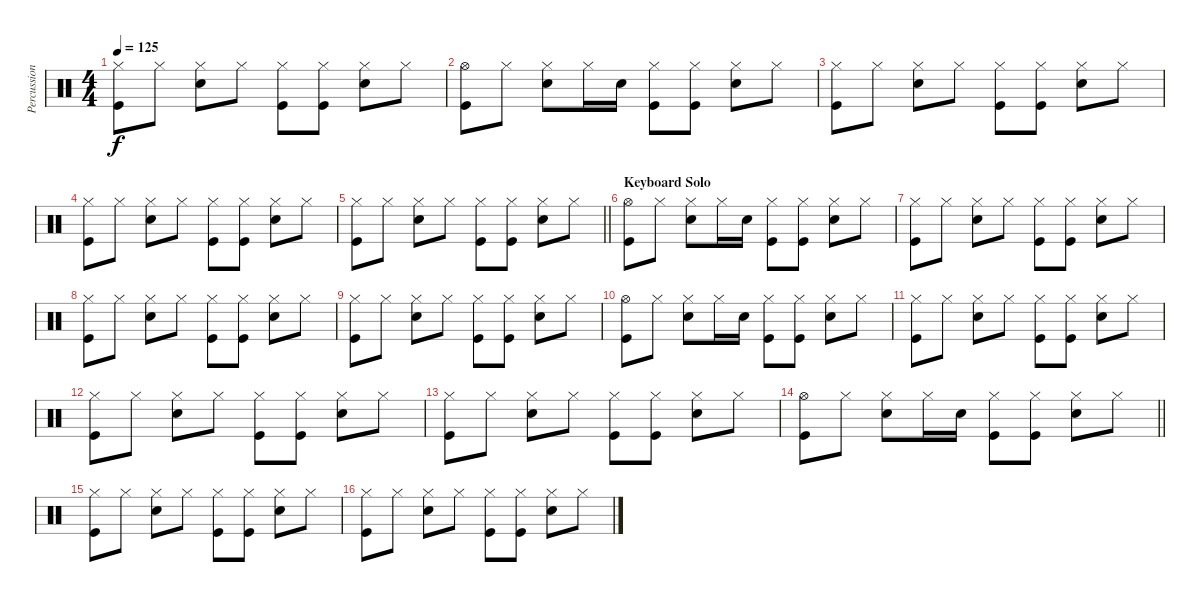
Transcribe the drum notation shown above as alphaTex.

\track ("Percussion" "Percussion") {instrument percussion}
\staff {score}
\articulation defaults
\ts (4 4)
\tempo 125
\clef neutral
\ks c
("Hi-Hat (closed)" "Kick (hit)").8{dy f} "Hi-Hat (closed)".8 ("Electric Snare (hit)" "Hi-Hat (closed)").8 "Hi-Hat (closed)".8 ("Hi-Hat (closed)" "Kick (hit)").8 ("Hi-Hat (closed)" "Kick (hit)").8 ("Electric Snare (hit)" "Hi-Hat (closed)").8 "Hi-Hat (closed)".8 |
("Hi-Hat (open)" "Kick (hit)").8 "Hi-Hat (closed)".8 ("Electric Snare (hit)" "Hi-Hat (closed)").8 "Hi-Hat (closed)".16 "Electric Snare (hit)".16 ("Hi-Hat (closed)" "Kick (hit)").8 ("Hi-Hat (closed)" "Kick (hit)").8 ("Electric Snare (hit)" "Hi-Hat (closed)").8 "Hi-Hat (closed)".8 |
("Hi-Hat (closed)" "Kick (hit)").8 "Hi-Hat (closed)".8 ("Electric Snare (hit)" "Hi-Hat (closed)").8 "Hi-Hat (closed)".8 ("Hi-Hat (closed)" "Kick (hit)").8 ("Hi-Hat (closed)" "Kick (hit)").8 ("Electric Snare (hit)" "Hi-Hat (closed)").8 "Hi-Hat (closed)".8 |
("Hi-Hat (closed)" "Kick (hit)").8 "Hi-Hat (closed)".8 ("Electric Snare (hit)" "Hi-Hat (closed)").8 "Hi-Hat (closed)".8 ("Hi-Hat (closed)" "Kick (hit)").8 ("Hi-Hat (closed)" "Kick (hit)").8 ("Electric Snare (hit)" "Hi-Hat (closed)").8 "Hi-Hat (closed)".8 |
\barLineRight lightlight
("Hi-Hat (closed)" "Kick (hit)").8 "Hi-Hat (closed)".8 ("Electric Snare (hit)" "Hi-Hat (closed)").8 "Hi-Hat (closed)".8 ("Hi-Hat (closed)" "Kick (hit)").8 ("Hi-Hat (closed)" "Kick (hit)").8 ("Electric Snare (hit)" "Hi-Hat (closed)").8 "Hi-Hat (closed)".8 |
\section ("" "Keyboard Solo")
("Hi-Hat (open)" "Kick (hit)").8 "Hi-Hat (closed)".8 ("Electric Snare (hit)" "Hi-Hat (closed)").8 "Hi-Hat (closed)".16 "Electric Snare (hit)".16 ("Hi-Hat (closed)" "Kick (hit)").8 ("Hi-Hat (closed)" "Kick (hit)").8 ("Electric Snare (hit)" "Hi-Hat (closed)").8 "Hi-Hat (closed)".8 |
("Hi-Hat (closed)" "Kick (hit)").8 "Hi-Hat (closed)".8 ("Electric Snare (hit)" "Hi-Hat (closed)").8 "Hi-Hat (closed)".8 ("Hi-Hat (closed)" "Kick (hit)").8 ("Hi-Hat (closed)" "Kick (hit)").8 ("Electric Snare (hit)" "Hi-Hat (closed)").8 "Hi-Hat (closed)".8 |
("Hi-Hat (closed)" "Kick (hit)").8 "Hi-Hat (closed)".8 ("Electric Snare (hit)" "Hi-Hat (closed)").8 "Hi-Hat (closed)".8 ("Hi-Hat (closed)" "Kick (hit)").8 ("Hi-Hat (closed)" "Kick (hit)").8 ("Electric Snare (hit)" "Hi-Hat (closed)").8 "Hi-Hat (closed)".8 |
("Hi-Hat (closed)" "Kick (hit)").8 "Hi-Hat (closed)".8 ("Electric Snare (hit)" "Hi-Hat (closed)").8 "Hi-Hat (closed)".8 ("Hi-Hat (closed)" "Kick (hit)").8 ("Hi-Hat (closed)" "Kick (hit)").8 ("Electric Snare (hit)" "Hi-Hat (closed)").8 "Hi-Hat (closed)".8 |
("Hi-Hat (open)" "Kick (hit)").8 "Hi-Hat (closed)".8 ("Electric Snare (hit)" "Hi-Hat (closed)").8 "Hi-Hat (closed)".16 "Electric Snare (hit)".16 ("Hi-Hat (closed)" "Kick (hit)").8 ("Hi-Hat (closed)" "Kick (hit)").8 ("Electric Snare (hit)" "Hi-Hat (closed)").8 "Hi-Hat (closed)".8 |
("Hi-Hat (closed)" "Kick (hit)").8 "Hi-Hat (closed)".8 ("Electric Snare (hit)" "Hi-Hat (closed)").8 "Hi-Hat (closed)".8 ("Hi-Hat (closed)" "Kick (hit)").8 ("Hi-Hat (closed)" "Kick (hit)").8 ("Electric Snare (hit)" "Hi-Hat (closed)").8 "Hi-Hat (closed)".8 |
("Hi-Hat (closed)" "Kick (hit)").8 "Hi-Hat (closed)".8 ("Electric Snare (hit)" "Hi-Hat (closed)").8 "Hi-Hat (closed)".8 ("Hi-Hat (closed)" "Kick (hit)").8 ("Hi-Hat (closed)" "Kick (hit)").8 ("Electric Snare (hit)" "Hi-Hat (closed)").8 "Hi-Hat (closed)".8 |
("Hi-Hat (closed)" "Kick (hit)").8 "Hi-Hat (closed)".8 ("Electric Snare (hit)" "Hi-Hat (closed)").8 "Hi-Hat (closed)".8 ("Hi-Hat (closed)" "Kick (hit)").8 ("Hi-Hat (closed)" "Kick (hit)").8 ("Electric Snare (hit)" "Hi-Hat (closed)").8 "Hi-Hat (closed)".8 |
\barLineRight lightlight
("Hi-Hat (open)" "Kick (hit)").8 "Hi-Hat (closed)".8 ("Electric Snare (hit)" "Hi-Hat (closed)").8 "Hi-Hat (closed)".16 "Electric Snare (hit)".16 ("Hi-Hat (closed)" "Kick (hit)").8 ("Hi-Hat (closed)" "Kick (hit)").8 ("Electric Snare (hit)" "Hi-Hat (closed)").8 "Hi-Hat (closed)".8 |
("Hi-Hat (closed)" "Kick (hit)").8 "Hi-Hat (closed)".8 ("Electric Snare (hit)" "Hi-Hat (closed)").8 "Hi-Hat (closed)".8 ("Hi-Hat (closed)" "Kick (hit)").8 ("Hi-Hat (closed)" "Kick (hit)").8 ("Electric Snare (hit)" "Hi-Hat (closed)").8 "Hi-Hat (closed)".8 |
("Hi-Hat (closed)" "Kick (hit)").8 "Hi-Hat (closed)".8 ("Electric Snare (hit)" "Hi-Hat (closed)").8 "Hi-Hat (closed)".8 ("Hi-Hat (closed)" "Kick (hit)").8 ("Hi-Hat (closed)" "Kick (hit)").8 ("Electric Snare (hit)" "Hi-Hat (closed)").8 "Hi-Hat (closed)".8
